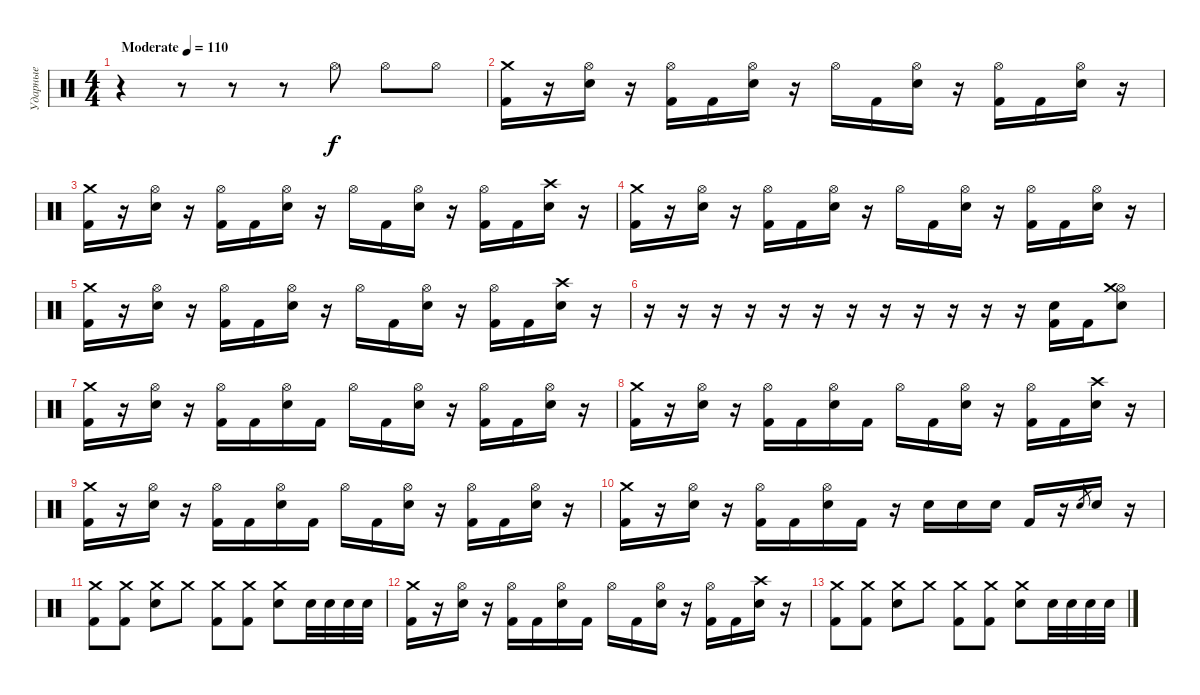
\track ("Ударные" "Ударные") {instrument percussion}
\staff {score}
\articulation defaults
\ts (4 4)
\tempo (110 "Moderate")
\clef neutral
\ks c
r.4{dy f} r.8 r.8 r.8 "Hi-Hat (open)".8 "Hi-Hat (open)".8 "Hi-Hat (open)".8 |
("Crash medium (hit)" "Kick (hit) 2").16 r.16 ("Hi-Hat (open)" "Electric Snare (hit)").16 r.16 ("Hi-Hat (open)" "Kick (hit) 2").16 "Kick (hit) 2".16 ("Hi-Hat (open)" "Electric Snare (hit)").16 r.16 "Hi-Hat (open)".16 "Kick (hit) 2".16 ("Hi-Hat (open)" "Electric Snare (hit)").16 r.16 ("Hi-Hat (open)" "Kick (hit) 2").16 "Kick (hit) 2".16 ("Hi-Hat (open)" "Electric Snare (hit)").16 r.16 |
("Crash medium (hit)" "Kick (hit) 2").16 r.16 ("Hi-Hat (open)" "Electric Snare (hit)").16 r.16 ("Hi-Hat (open)" "Kick (hit) 2").16 "Kick (hit) 2".16 ("Hi-Hat (open)" "Electric Snare (hit)").16 r.16 "Hi-Hat (open)".16 "Kick (hit) 2".16 ("Hi-Hat (open)" "Electric Snare (hit)").16 r.16 ("Hi-Hat (open)" "Kick (hit) 2").16 "Kick (hit) 2".16 ("Crash high (hit)" "Electric Snare (hit)").16 r.16 |
("Crash medium (hit)" "Kick (hit) 2").16 r.16 ("Hi-Hat (open)" "Electric Snare (hit)").16 r.16 ("Hi-Hat (open)" "Kick (hit) 2").16 "Kick (hit) 2".16 ("Hi-Hat (open)" "Electric Snare (hit)").16 r.16 "Hi-Hat (open)".16 "Kick (hit) 2".16 ("Hi-Hat (open)" "Electric Snare (hit)").16 r.16 ("Hi-Hat (open)" "Kick (hit) 2").16 "Kick (hit) 2".16 ("Hi-Hat (open)" "Electric Snare (hit)").16 r.16 |
("Crash medium (hit)" "Kick (hit) 2").16 r.16 ("Hi-Hat (open)" "Electric Snare (hit)").16 r.16 ("Hi-Hat (open)" "Kick (hit) 2").16 "Kick (hit) 2".16 ("Hi-Hat (open)" "Electric Snare (hit)").16 r.16 "Hi-Hat (open)".16 "Kick (hit) 2".16 ("Hi-Hat (open)" "Electric Snare (hit)").16 r.16 ("Hi-Hat (open)" "Kick (hit) 2").16 "Kick (hit) 2".16 ("Crash high (hit)" "Electric Snare (hit)").16 r.16 |
r.16 r.16 r.16 r.16 r.16 r.16 r.16 r.16 r.16 r.16 r.16 r.16 ("Electric Snare (hit)" "Kick (hit) 2").16 "Kick (hit) 2".16 ("Hi-Hat (open)" "Crash medium (hit)" "Electric Snare (hit)").8 |
("Crash medium (hit)" "Kick (hit) 2").16 r.16 ("Hi-Hat (open)" "Electric Snare (hit)").16 r.16 ("Hi-Hat (open)" "Kick (hit) 2").16 "Kick (hit) 2".16 ("Hi-Hat (open)" "Electric Snare (hit)").16 "Kick (hit) 2".16 "Hi-Hat (open)".16 "Kick (hit) 2".16 ("Hi-Hat (open)" "Electric Snare (hit)").16 r.16 ("Hi-Hat (open)" "Kick (hit) 2").16 "Kick (hit) 2".16 ("Hi-Hat (open)" "Electric Snare (hit)").16 r.16 |
("Crash medium (hit)" "Kick (hit) 2").16 r.16 ("Hi-Hat (open)" "Electric Snare (hit)").16 r.16 ("Hi-Hat (open)" "Kick (hit) 2").16 "Kick (hit) 2".16 ("Hi-Hat (open)" "Electric Snare (hit)").16 "Kick (hit) 2".16 "Hi-Hat (open)".16 "Kick (hit) 2".16 ("Hi-Hat (open)" "Electric Snare (hit)").16 r.16 ("Hi-Hat (open)" "Kick (hit) 2").16 "Kick (hit) 2".16 ("Crash high (hit)" "Electric Snare (hit)").16 r.16 |
("Crash medium (hit)" "Kick (hit) 2").16 r.16 ("Hi-Hat (open)" "Electric Snare (hit)").16 r.16 ("Hi-Hat (open)" "Kick (hit) 2").16 "Kick (hit) 2".16 ("Hi-Hat (open)" "Electric Snare (hit)").16 "Kick (hit) 2".16 "Hi-Hat (open)".16 "Kick (hit) 2".16 ("Hi-Hat (open)" "Electric Snare (hit)").16 r.16 ("Hi-Hat (open)" "Kick (hit) 2").16 "Kick (hit) 2".16 ("Hi-Hat (open)" "Electric Snare (hit)").16 r.16 |
("Crash medium (hit)" "Kick (hit) 2").16 r.16 ("Hi-Hat (open)" "Electric Snare (hit)").16 r.16 ("Hi-Hat (open)" "Kick (hit) 2").16 "Kick (hit) 2".16 ("Hi-Hat (open)" "Electric Snare (hit)").16 "Kick (hit) 2".16 r.16 "Electric Snare (hit)".16 "Electric Snare (hit)".16 "Electric Snare (hit)".16 "Kick (hit) 2".16 r.16 "Electric Snare (hit)".8{gr} "Electric Snare (hit)".16 r.16 |
("Crash medium (hit)" "Kick (hit) 2").8 ("Crash medium (hit)" "Kick (hit) 2").8 ("Crash medium (hit)" "Electric Snare (hit)").8 "Crash medium (hit)".8 ("Crash medium (hit)" "Kick (hit) 2").8 ("Crash medium (hit)" "Kick (hit) 2").8 ("Crash medium (hit)" "Electric Snare (hit)").8 "Electric Snare (hit)".32 "Electric Snare (hit)".32 "Electric Snare (hit)".32 "Electric Snare (hit)".32 |
("Crash medium (hit)" "Kick (hit) 2").16 r.16 ("Hi-Hat (open)" "Electric Snare (hit)").16 r.16 ("Hi-Hat (open)" "Kick (hit) 2").16 "Kick (hit) 2".16 ("Hi-Hat (open)" "Electric Snare (hit)").16 "Kick (hit) 2".16 "Hi-Hat (open)".16 "Kick (hit) 2".16 ("Hi-Hat (open)" "Electric Snare (hit)").16 r.16 ("Hi-Hat (open)" "Kick (hit) 2").16 "Kick (hit) 2".16 ("Crash high (hit)" "Electric Snare (hit)").16 r.16 |
("Crash medium (hit)" "Kick (hit) 2").8 ("Crash medium (hit)" "Kick (hit) 2").8 ("Crash medium (hit)" "Electric Snare (hit)").8 "Crash medium (hit)".8 ("Crash medium (hit)" "Kick (hit) 2").8 ("Crash medium (hit)" "Kick (hit) 2").8 ("Crash medium (hit)" "Electric Snare (hit)").8 "Electric Snare (hit)".32 "Electric Snare (hit)".32 "Electric Snare (hit)".32 "Electric Snare (hit)".32
